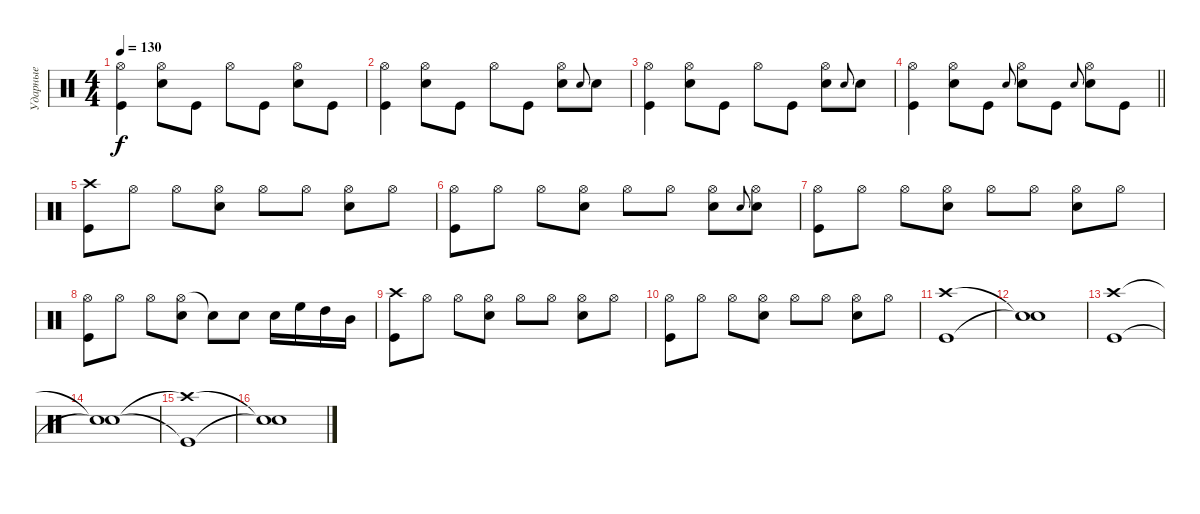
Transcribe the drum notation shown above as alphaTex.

\track ("Ударные" "Ударные") {instrument percussion}
\staff {score}
\articulation defaults
\ts (4 4)
\tempo 130
\clef neutral
\ks c
("Hi-Hat (open)" "Kick (hit)").4{dy f} ("Hi-Hat (open)" "Snare (hit) 2").8 "Kick (hit)".8 "Hi-Hat (open)".8 "Kick (hit)".8 ("Hi-Hat (open)" "Snare (hit) 2").8 "Kick (hit)".8 |
("Hi-Hat (open)" "Kick (hit)").4 ("Hi-Hat (open)" "Snare (hit) 2").8 "Kick (hit)".8 "Hi-Hat (open)".8 "Kick (hit)".8 ("Hi-Hat (open)" "Snare (hit) 2").8 "Snare (hit) 2".8{gr onbeat} "Snare (hit) 2".8 |
("Hi-Hat (open)" "Kick (hit)").4 ("Hi-Hat (open)" "Snare (hit) 2").8 "Kick (hit)".8 "Hi-Hat (open)".8 "Kick (hit)".8 ("Hi-Hat (open)" "Snare (hit) 2").8 "Snare (hit) 2".8{gr onbeat} "Snare (hit) 2".8 |
\barLineRight lightlight
("Hi-Hat (open)" "Kick (hit)").4 ("Hi-Hat (open)" "Snare (hit) 2").8 "Kick (hit)".8 "Snare (hit) 2".8{gr onbeat} ("Hi-Hat (open)" "Snare (hit) 2").8 "Kick (hit)".8 "Snare (hit) 2".8{gr onbeat} ("Hi-Hat (open)" "Snare (hit) 2").8 "Kick (hit)".8 |
("Crash high (hit)" "Kick (hit)").8 "Hi-Hat (open)".8 "Hi-Hat (open)".8 ("Hi-Hat (open)" "Snare (hit) 2").8 "Hi-Hat (open)".8 "Hi-Hat (open)".8 ("Hi-Hat (open)" "Snare (hit) 2").8 "Hi-Hat (open)".8 |
("Hi-Hat (open)" "Kick (hit)").8 "Hi-Hat (open)".8 "Hi-Hat (open)".8 ("Hi-Hat (open)" "Snare (hit) 2").8 "Hi-Hat (open)".8 "Hi-Hat (open)".8 ("Hi-Hat (open)" "Snare (hit) 2").8 "Snare (hit) 2".8{gr onbeat} ("Hi-Hat (open)" "Snare (hit) 2").8 |
("Hi-Hat (open)" "Kick (hit)").8 "Hi-Hat (open)".8 "Hi-Hat (open)".8 ("Hi-Hat (open)" "Snare (hit) 2").8 "Hi-Hat (open)".8 "Hi-Hat (open)".8 ("Hi-Hat (open)" "Snare (hit) 2").8 "Hi-Hat (open)".8 |
("Hi-Hat (open)" "Kick (hit)").8 "Hi-Hat (open)".8 "Hi-Hat (open)".8 ("Hi-Hat (open)" "Snare (hit) 2").8 "Snare (hit)"{t}.8 "Snare (hit) 2".8 "Snare (hit) 2".16 "High Floor Tom (hit)".16 "High Tom (hit)".16 "Mid Tom (hit)".16 |
("Crash high (hit)" "Kick (hit)").8 "Hi-Hat (open)".8 "Hi-Hat (open)".8 ("Hi-Hat (open)" "Snare (hit) 2").8 "Hi-Hat (open)".8 "Hi-Hat (open)".8 ("Hi-Hat (open)" "Snare (hit) 2").8 "Hi-Hat (open)".8 |
("Hi-Hat (open)" "Kick (hit)").8 "Hi-Hat (open)".8 "Hi-Hat (open)".8 ("Hi-Hat (open)" "Snare (hit) 2").8 "Hi-Hat (open)".8 "Hi-Hat (open)".8 ("Hi-Hat (open)" "Snare (hit) 2").8 "Hi-Hat (open)".8 |
("Crash high (hit)" "Kick (hit)").1 |
("Snare (hit)"{t} "Snare (hit)"{t}).1 |
("Crash high (hit)" "Kick (hit)").1 |
("Snare (hit)"{t} "Snare (hit)"{t}).1 |
("Crash high (hit)"{t} "Kick (hit)"{t}).1 |
("Snare (hit)"{t} "Snare (hit)"{t}).1
